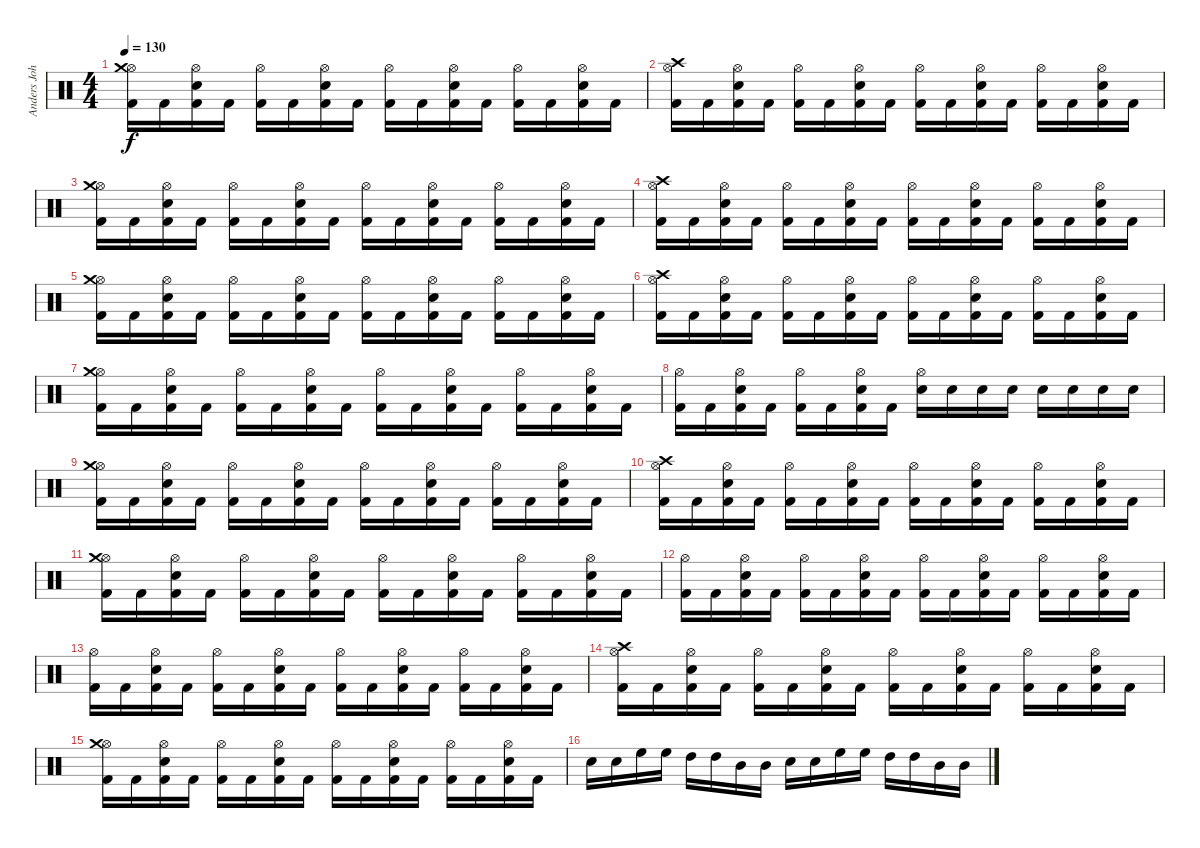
\track ("Anders Johansson - Drums" "Anders Joh") {instrument percussion}
\staff {score}
\articulation defaults
\ts (4 4)
\tempo 130
\clef neutral
\ks c
("Hi-Hat (open)" "Kick (hit) 2" "Crash medium (hit)").16{dy f} "Kick (hit) 2".16 ("Hi-Hat (open)" "Kick (hit) 2" "Electric Snare (hit)").16 "Kick (hit) 2".16 ("Hi-Hat (open)" "Kick (hit) 2").16 "Kick (hit) 2".16 ("Hi-Hat (open)" "Kick (hit) 2" "Electric Snare (hit)").16 "Kick (hit) 2".16 ("Hi-Hat (open)" "Kick (hit) 2").16 "Kick (hit) 2".16 ("Hi-Hat (open)" "Kick (hit) 2" "Electric Snare (hit)").16 "Kick (hit) 2".16 ("Hi-Hat (open)" "Kick (hit) 2").16 "Kick (hit) 2".16 ("Hi-Hat (open)" "Kick (hit) 2" "Electric Snare (hit)").16 "Kick (hit) 2".16 |
("Hi-Hat (open)" "Kick (hit) 2" "Crash high (hit)").16 "Kick (hit) 2".16 ("Hi-Hat (open)" "Kick (hit) 2" "Electric Snare (hit)").16 "Kick (hit) 2".16 ("Hi-Hat (open)" "Kick (hit) 2").16 "Kick (hit) 2".16 ("Hi-Hat (open)" "Kick (hit) 2" "Electric Snare (hit)").16 "Kick (hit) 2".16 ("Hi-Hat (open)" "Kick (hit) 2").16 "Kick (hit) 2".16 ("Hi-Hat (open)" "Kick (hit) 2" "Electric Snare (hit)").16 "Kick (hit) 2".16 ("Hi-Hat (open)" "Kick (hit) 2").16 "Kick (hit) 2".16 ("Hi-Hat (open)" "Kick (hit) 2" "Electric Snare (hit)").16 "Kick (hit) 2".16 |
("Hi-Hat (open)" "Kick (hit) 2" "Crash medium (hit)").16 "Kick (hit) 2".16 ("Hi-Hat (open)" "Kick (hit) 2" "Electric Snare (hit)").16 "Kick (hit) 2".16 ("Hi-Hat (open)" "Kick (hit) 2").16 "Kick (hit) 2".16 ("Hi-Hat (open)" "Kick (hit) 2" "Electric Snare (hit)").16 "Kick (hit) 2".16 ("Hi-Hat (open)" "Kick (hit) 2").16 "Kick (hit) 2".16 ("Hi-Hat (open)" "Kick (hit) 2" "Electric Snare (hit)").16 "Kick (hit) 2".16 ("Hi-Hat (open)" "Kick (hit) 2").16 "Kick (hit) 2".16 ("Hi-Hat (open)" "Kick (hit) 2" "Electric Snare (hit)").16 "Kick (hit) 2".16 |
("Hi-Hat (open)" "Kick (hit) 2" "Crash high (hit)").16 "Kick (hit) 2".16 ("Hi-Hat (open)" "Kick (hit) 2" "Electric Snare (hit)").16 "Kick (hit) 2".16 ("Hi-Hat (open)" "Kick (hit) 2").16 "Kick (hit) 2".16 ("Hi-Hat (open)" "Kick (hit) 2" "Electric Snare (hit)").16 "Kick (hit) 2".16 ("Hi-Hat (open)" "Kick (hit) 2").16 "Kick (hit) 2".16 ("Hi-Hat (open)" "Kick (hit) 2" "Electric Snare (hit)").16 "Kick (hit) 2".16 ("Hi-Hat (open)" "Kick (hit) 2").16 "Kick (hit) 2".16 ("Hi-Hat (open)" "Kick (hit) 2" "Electric Snare (hit)").16 "Kick (hit) 2".16 |
("Hi-Hat (open)" "Kick (hit) 2" "Crash medium (hit)").16 "Kick (hit) 2".16 ("Hi-Hat (open)" "Kick (hit) 2" "Electric Snare (hit)").16 "Kick (hit) 2".16 ("Hi-Hat (open)" "Kick (hit) 2").16 "Kick (hit) 2".16 ("Hi-Hat (open)" "Kick (hit) 2" "Electric Snare (hit)").16 "Kick (hit) 2".16 ("Hi-Hat (open)" "Kick (hit) 2").16 "Kick (hit) 2".16 ("Hi-Hat (open)" "Kick (hit) 2" "Electric Snare (hit)").16 "Kick (hit) 2".16 ("Hi-Hat (open)" "Kick (hit) 2").16 "Kick (hit) 2".16 ("Hi-Hat (open)" "Kick (hit) 2" "Electric Snare (hit)").16 "Kick (hit) 2".16 |
("Hi-Hat (open)" "Kick (hit) 2" "Crash high (hit)").16 "Kick (hit) 2".16 ("Hi-Hat (open)" "Kick (hit) 2" "Electric Snare (hit)").16 "Kick (hit) 2".16 ("Hi-Hat (open)" "Kick (hit) 2").16 "Kick (hit) 2".16 ("Hi-Hat (open)" "Kick (hit) 2" "Electric Snare (hit)").16 "Kick (hit) 2".16 ("Hi-Hat (open)" "Kick (hit) 2").16 "Kick (hit) 2".16 ("Hi-Hat (open)" "Kick (hit) 2" "Electric Snare (hit)").16 "Kick (hit) 2".16 ("Hi-Hat (open)" "Kick (hit) 2").16 "Kick (hit) 2".16 ("Hi-Hat (open)" "Kick (hit) 2" "Electric Snare (hit)").16 "Kick (hit) 2".16 |
("Hi-Hat (open)" "Kick (hit) 2" "Crash medium (hit)").16 "Kick (hit) 2".16 ("Hi-Hat (open)" "Kick (hit) 2" "Electric Snare (hit)").16 "Kick (hit) 2".16 ("Hi-Hat (open)" "Kick (hit) 2").16 "Kick (hit) 2".16 ("Hi-Hat (open)" "Kick (hit) 2" "Electric Snare (hit)").16 "Kick (hit) 2".16 ("Hi-Hat (open)" "Kick (hit) 2").16 "Kick (hit) 2".16 ("Hi-Hat (open)" "Kick (hit) 2" "Electric Snare (hit)").16 "Kick (hit) 2".16 ("Hi-Hat (open)" "Kick (hit) 2").16 "Kick (hit) 2".16 ("Hi-Hat (open)" "Kick (hit) 2" "Electric Snare (hit)").16 "Kick (hit) 2".16 |
("Hi-Hat (open)" "Kick (hit) 2").16 "Kick (hit) 2".16 ("Hi-Hat (open)" "Kick (hit) 2" "Electric Snare (hit)").16 "Kick (hit) 2".16 ("Hi-Hat (open)" "Kick (hit) 2").16 "Kick (hit) 2".16 ("Hi-Hat (open)" "Kick (hit) 2" "Electric Snare (hit)").16 "Kick (hit) 2".16 ("Hi-Hat (open)" "Electric Snare (hit)").16 "Electric Snare (hit)".16 "Electric Snare (hit)".16 "Electric Snare (hit)".16 "Electric Snare (hit)".16 "Electric Snare (hit)".16 "Electric Snare (hit)".16 "Electric Snare (hit)".16 |
("Hi-Hat (open)" "Kick (hit) 2" "Crash medium (hit)").16 "Kick (hit) 2".16 ("Hi-Hat (open)" "Kick (hit) 2" "Electric Snare (hit)").16 "Kick (hit) 2".16 ("Hi-Hat (open)" "Kick (hit) 2").16 "Kick (hit) 2".16 ("Hi-Hat (open)" "Kick (hit) 2" "Electric Snare (hit)").16 "Kick (hit) 2".16 ("Hi-Hat (open)" "Kick (hit) 2").16 "Kick (hit) 2".16 ("Hi-Hat (open)" "Kick (hit) 2" "Electric Snare (hit)").16 "Kick (hit) 2".16 ("Hi-Hat (open)" "Kick (hit) 2").16 "Kick (hit) 2".16 ("Hi-Hat (open)" "Kick (hit) 2" "Electric Snare (hit)").16 "Kick (hit) 2".16 |
("Hi-Hat (open)" "Kick (hit) 2" "Crash high (hit)").16 "Kick (hit) 2".16 ("Hi-Hat (open)" "Kick (hit) 2" "Electric Snare (hit)").16 "Kick (hit) 2".16 ("Hi-Hat (open)" "Kick (hit) 2").16 "Kick (hit) 2".16 ("Hi-Hat (open)" "Kick (hit) 2" "Electric Snare (hit)").16 "Kick (hit) 2".16 ("Hi-Hat (open)" "Kick (hit) 2").16 "Kick (hit) 2".16 ("Hi-Hat (open)" "Kick (hit) 2" "Electric Snare (hit)").16 "Kick (hit) 2".16 ("Hi-Hat (open)" "Kick (hit) 2").16 "Kick (hit) 2".16 ("Hi-Hat (open)" "Kick (hit) 2" "Electric Snare (hit)").16 "Kick (hit) 2".16 |
("Hi-Hat (open)" "Kick (hit) 2" "Crash medium (hit)").16 "Kick (hit) 2".16 ("Hi-Hat (open)" "Kick (hit) 2" "Electric Snare (hit)").16 "Kick (hit) 2".16 ("Hi-Hat (open)" "Kick (hit) 2").16 "Kick (hit) 2".16 ("Hi-Hat (open)" "Kick (hit) 2" "Electric Snare (hit)").16 "Kick (hit) 2".16 ("Hi-Hat (open)" "Kick (hit) 2").16 "Kick (hit) 2".16 ("Hi-Hat (open)" "Kick (hit) 2" "Electric Snare (hit)").16 "Kick (hit) 2".16 ("Hi-Hat (open)" "Kick (hit) 2").16 "Kick (hit) 2".16 ("Hi-Hat (open)" "Kick (hit) 2" "Electric Snare (hit)").16 "Kick (hit) 2".16 |
("Hi-Hat (open)" "Kick (hit) 2").16 "Kick (hit) 2".16 ("Hi-Hat (open)" "Kick (hit) 2" "Electric Snare (hit)").16 "Kick (hit) 2".16 ("Hi-Hat (open)" "Kick (hit) 2").16 "Kick (hit) 2".16 ("Hi-Hat (open)" "Kick (hit) 2" "Electric Snare (hit)").16 "Kick (hit) 2".16 ("Hi-Hat (open)" "Kick (hit) 2").16 "Kick (hit) 2".16 ("Hi-Hat (open)" "Kick (hit) 2" "Electric Snare (hit)").16 "Kick (hit) 2".16 ("Hi-Hat (open)" "Kick (hit) 2").16 "Kick (hit) 2".16 ("Hi-Hat (open)" "Kick (hit) 2" "Electric Snare (hit)").16 "Kick (hit) 2".16 |
("Hi-Hat (open)" "Kick (hit) 2").16 "Kick (hit) 2".16 ("Hi-Hat (open)" "Kick (hit) 2" "Electric Snare (hit)").16 "Kick (hit) 2".16 ("Hi-Hat (open)" "Kick (hit) 2").16 "Kick (hit) 2".16 ("Hi-Hat (open)" "Kick (hit) 2" "Electric Snare (hit)").16 "Kick (hit) 2".16 ("Hi-Hat (open)" "Kick (hit) 2").16 "Kick (hit) 2".16 ("Hi-Hat (open)" "Kick (hit) 2" "Electric Snare (hit)").16 "Kick (hit) 2".16 ("Hi-Hat (open)" "Kick (hit) 2").16 "Kick (hit) 2".16 ("Hi-Hat (open)" "Kick (hit) 2" "Electric Snare (hit)").16 "Kick (hit) 2".16 |
("Hi-Hat (open)" "Kick (hit) 2" "Crash high (hit)").16 "Kick (hit) 2".16 ("Hi-Hat (open)" "Kick (hit) 2" "Electric Snare (hit)").16 "Kick (hit) 2".16 ("Hi-Hat (open)" "Kick (hit) 2").16 "Kick (hit) 2".16 ("Hi-Hat (open)" "Kick (hit) 2" "Electric Snare (hit)").16 "Kick (hit) 2".16 ("Hi-Hat (open)" "Kick (hit) 2").16 "Kick (hit) 2".16 ("Hi-Hat (open)" "Kick (hit) 2" "Electric Snare (hit)").16 "Kick (hit) 2".16 ("Hi-Hat (open)" "Kick (hit) 2").16 "Kick (hit) 2".16 ("Hi-Hat (open)" "Kick (hit) 2" "Electric Snare (hit)").16 "Kick (hit) 2".16 |
("Hi-Hat (open)" "Kick (hit) 2" "Crash medium (hit)").16 "Kick (hit) 2".16 ("Hi-Hat (open)" "Kick (hit) 2" "Electric Snare (hit)").16 "Kick (hit) 2".16 ("Hi-Hat (open)" "Kick (hit) 2").16 "Kick (hit) 2".16 ("Hi-Hat (open)" "Kick (hit) 2" "Electric Snare (hit)").16 "Kick (hit) 2".16 ("Hi-Hat (open)" "Kick (hit) 2").16 "Kick (hit) 2".16 ("Hi-Hat (open)" "Kick (hit) 2" "Electric Snare (hit)").16 "Kick (hit) 2".16 ("Hi-Hat (open)" "Kick (hit) 2").16 "Kick (hit) 2".16 ("Hi-Hat (open)" "Kick (hit) 2" "Electric Snare (hit)").16 "Kick (hit) 2".16 |
"Electric Snare (hit)".16 "Electric Snare (hit)".16 "High Floor Tom (hit)".16 "High Floor Tom (hit)".16 "High Tom (hit)".16 "High Tom (hit)".16 "Mid Tom (hit)".16 "Mid Tom (hit)".16 "Electric Snare (hit)".16 "Electric Snare (hit)".16 "High Floor Tom (hit)".16 "High Floor Tom (hit)".16 "High Tom (hit)".16 "High Tom (hit)".16 "Mid Tom (hit)".16 "Mid Tom (hit)".16
